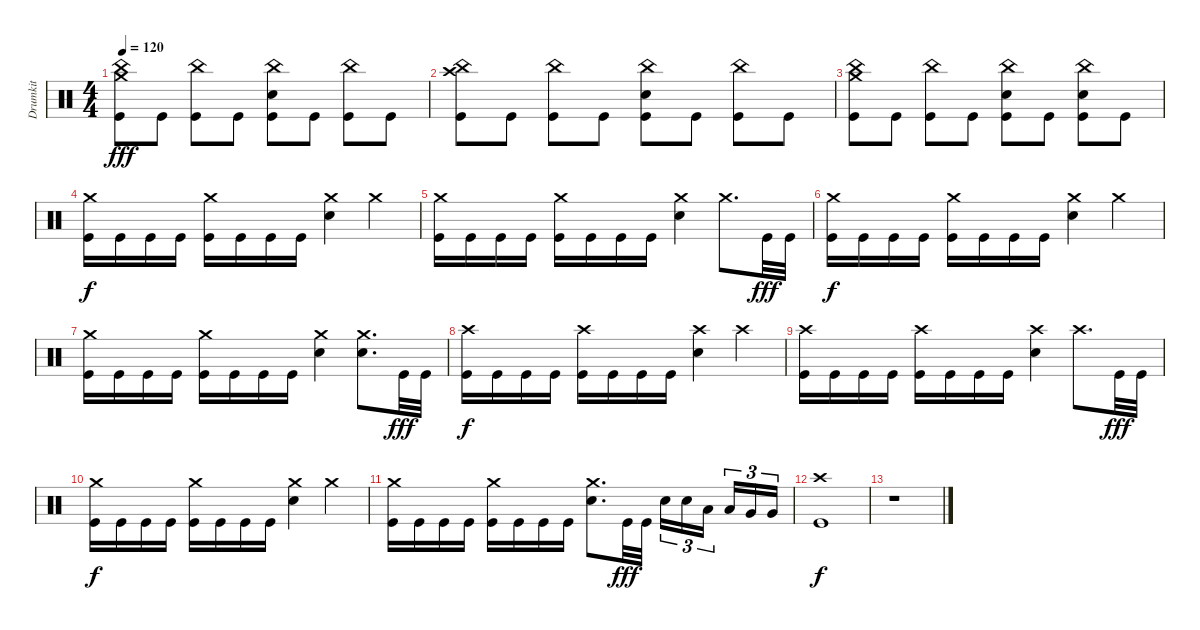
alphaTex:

\track ("Drumkit" "Drumkit") {instrument percussion}
\staff {score}
\articulation defaults
\ts (4 4)
\tempo 120
\clef neutral
\ks c
("Crash medium (hit)" "China (hit)" "Kick (hit)").8{dy fff} "Kick (hit)".8 ("China (hit)" "Kick (hit)").8 "Kick (hit)".8 ("China (hit)" "Snare (hit) 2" "Kick (hit)").8 "Kick (hit)".8 ("China (hit)" "Kick (hit)").8 "Kick (hit)".8 |
("Crash high (hit)" "China (hit)" "Kick (hit)").8 "Kick (hit)".8 ("China (hit)" "Kick (hit)").8 "Kick (hit)".8 ("China (hit)" "Snare (hit) 2" "Kick (hit)").8 "Kick (hit)".8 ("China (hit)" "Kick (hit)").8 "Kick (hit)".8 |
("Crash medium (hit)" "China (hit)" "Kick (hit)").8 "Kick (hit)".8 ("China (hit)" "Kick (hit)").8 "Kick (hit)".8 ("China (hit)" "Snare (hit) 2" "Kick (hit)").8 "Kick (hit)".8 ("China (hit)" "Snare (hit) 2" "Kick (hit)").8 "Kick (hit)".8 |
("Crash medium (hit)" "Kick (hit)").16{dy f} "Kick (hit)".16 "Kick (hit)".16 "Kick (hit)".16 ("Crash medium (hit)" "Kick (hit)").16 "Kick (hit)".16 "Kick (hit)".16 "Kick (hit)".16 ("Crash medium (hit)" "Snare (hit) 2").4 "Crash medium (hit)".4 |
("Crash medium (hit)" "Kick (hit)").16 "Kick (hit)".16 "Kick (hit)".16 "Kick (hit)".16 ("Crash medium (hit)" "Kick (hit)").16 "Kick (hit)".16 "Kick (hit)".16 "Kick (hit)".16 ("Crash medium (hit)" "Snare (hit) 2").4 "Crash medium (hit)".8{d} "Kick (hit)".32{dy fff} "Kick (hit)".32 |
("Crash medium (hit)" "Kick (hit)").16{dy f} "Kick (hit)".16 "Kick (hit)".16 "Kick (hit)".16 ("Crash medium (hit)" "Kick (hit)").16 "Kick (hit)".16 "Kick (hit)".16 "Kick (hit)".16 ("Crash medium (hit)" "Snare (hit) 2").4 "Crash medium (hit)".4 |
("Crash medium (hit)" "Kick (hit)").16 "Kick (hit)".16 "Kick (hit)".16 "Kick (hit)".16 ("Crash medium (hit)" "Kick (hit)").16 "Kick (hit)".16 "Kick (hit)".16 "Kick (hit)".16 ("Crash medium (hit)" "Snare (hit) 2").4 ("Crash medium (hit)" "Snare (hit) 2").8{d} "Kick (hit)".32{dy fff} "Kick (hit)".32 |
("Crash high (hit)" "Kick (hit)").16{dy f} "Kick (hit)".16 "Kick (hit)".16 "Kick (hit)".16 ("Crash high (hit)" "Kick (hit)").16 "Kick (hit)".16 "Kick (hit)".16 "Kick (hit)".16 ("Crash high (hit)" "Snare (hit) 2").4 "Crash high (hit)".4 |
("Crash high (hit)" "Kick (hit)").16 "Kick (hit)".16 "Kick (hit)".16 "Kick (hit)".16 ("Crash high (hit)" "Kick (hit)").16 "Kick (hit)".16 "Kick (hit)".16 "Kick (hit)".16 ("Crash high (hit)" "Snare (hit) 2").4 "Crash high (hit)".8{d} "Kick (hit)".32{dy fff} "Kick (hit)".32 |
("Crash medium (hit)" "Kick (hit)").16{dy f} "Kick (hit)".16 "Kick (hit)".16 "Kick (hit)".16 ("Crash medium (hit)" "Kick (hit)").16 "Kick (hit)".16 "Kick (hit)".16 "Kick (hit)".16 ("Crash medium (hit)" "Snare (hit) 2").4 "Crash medium (hit)".4 |
("Crash medium (hit)" "Kick (hit)").16 "Kick (hit)".16 "Kick (hit)".16 "Kick (hit)".16 ("Crash medium (hit)" "Kick (hit)").16 "Kick (hit)".16 "Kick (hit)".16 "Kick (hit)".16 ("Crash medium (hit)" "Snare (hit) 2").8{d} "Kick (hit)".32{dy fff} "Kick (hit)".32 "Snare (hit) 2".16{tu (3 2)} "Snare (hit) 2".16{tu (3 2)} "Low Tom (hit)".16{tu (3 2)} "Low Tom (hit)".16{tu (3 2)} "Very Low Tom (hit)".16{tu (3 2)} "Very Low Tom (hit)".16{tu (3 2)} |
("Crash high (hit)" "Kick (hit)").1{dy f} |
r.1
